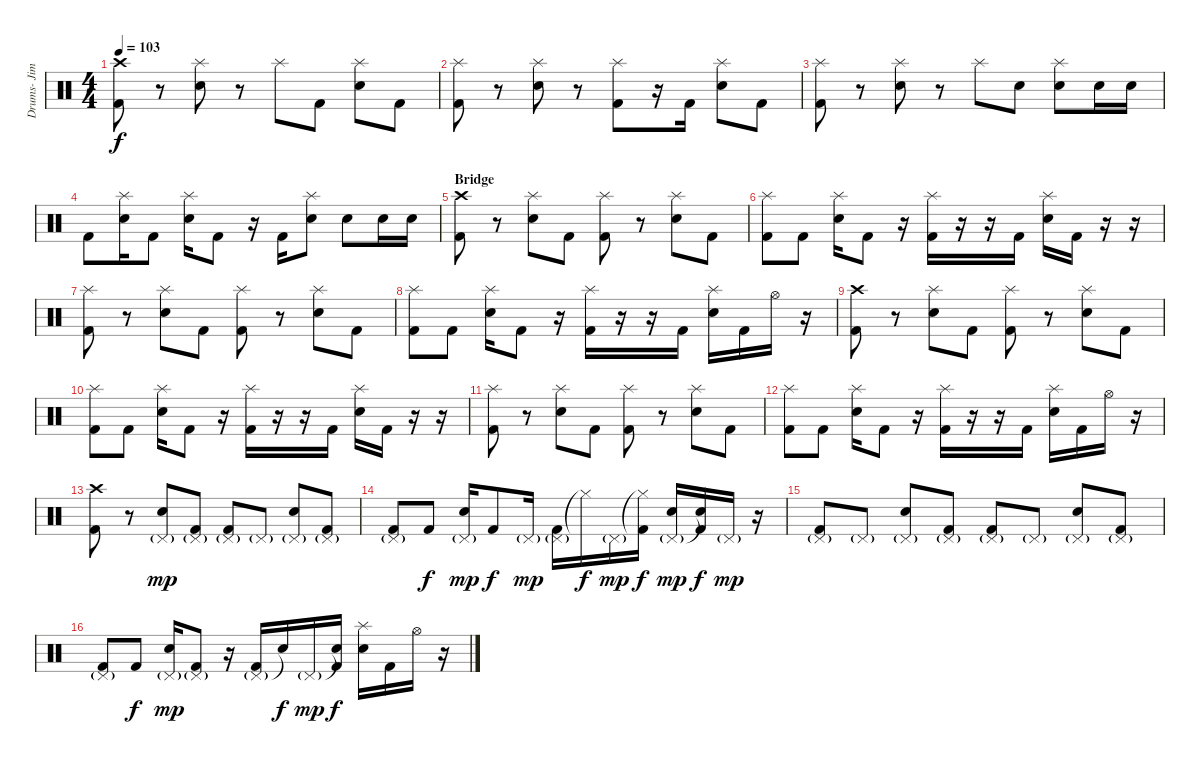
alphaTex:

\track ("Drums- Jimmy Bower" "Drums- Jim") {instrument percussion}
\staff {score}
\articulation defaults
\ts (4 4)
\tempo 103
\clef neutral
\ks c
("Crash high (hit)" "Kick (hit) 2").8{dy f} r.8 ("Splash (hit)" "Electric Snare (hit)").8 r.8 "Splash (hit)".8 "Kick (hit) 2".8 ("Splash (hit)" "Electric Snare (hit)").8 "Kick (hit) 2".8 |
("Splash (hit)" "Kick (hit) 2").8 r.8 ("Splash (hit)" "Electric Snare (hit)").8 r.8 ("Splash (hit)" "Kick (hit) 2").8 r.16 "Kick (hit) 2".16 ("Splash (hit)" "Electric Snare (hit)").8 "Kick (hit) 2".8 |
("Splash (hit)" "Kick (hit) 2").8 r.8 ("Splash (hit)" "Electric Snare (hit)").8 r.8 "Splash (hit)".8 "Electric Snare (hit)".8 ("Splash (hit)" "Electric Snare (hit)").8 "Electric Snare (hit)".16 "Electric Snare (hit)".16 |
"Kick (hit) 2".8 ("Splash (hit)" "Electric Snare (hit)").16 "Kick (hit) 2".8 ("Splash (hit)" "Electric Snare (hit)").16 "Kick (hit) 2".8 r.16 "Kick (hit) 2".16 ("Splash (hit)" "Electric Snare (hit)").8 "Electric Snare (hit)".8 "Electric Snare (hit)".16 "Electric Snare (hit)".16 |
\section ("" "Bridge")
("Crash high (hit)" "Kick (hit) 2").8 r.8 ("Splash (hit)" "Electric Snare (hit)").8 "Kick (hit) 2".8 ("Splash (hit)" "Kick (hit) 2").8 r.8 ("Splash (hit)" "Electric Snare (hit)").8 "Kick (hit) 2".8 |
("Splash (hit)" "Kick (hit) 2").8 "Kick (hit) 2".8 ("Splash (hit)" "Electric Snare (hit)").16 "Kick (hit) 2".8 r.16 ("Splash (hit)" "Kick (hit) 2").16 r.16 r.16 "Kick (hit) 2".16 ("Splash (hit)" "Electric Snare (hit)").16 "Kick (hit) 2".16 r.16 r.16 |
("Splash (hit)" "Kick (hit) 2").8 r.8 ("Splash (hit)" "Electric Snare (hit)").8 "Kick (hit) 2".8 ("Splash (hit)" "Kick (hit) 2").8 r.8 ("Splash (hit)" "Electric Snare (hit)").8 "Kick (hit) 2".8 |
("Splash (hit)" "Kick (hit) 2").8 "Kick (hit) 2".8 ("Splash (hit)" "Electric Snare (hit)").16 "Kick (hit) 2".8 r.16 ("Splash (hit)" "Kick (hit) 2").16 r.16 r.16 "Kick (hit) 2".16 ("Splash (hit)" "Electric Snare (hit)").16 "Kick (hit) 2".16 "Hi-Hat (open)".16 r.16 |
("Crash high (hit)" "Kick (hit) 2").8 r.8 ("Splash (hit)" "Electric Snare (hit)").8 "Kick (hit) 2".8 ("Splash (hit)" "Kick (hit) 2").8 r.8 ("Splash (hit)" "Electric Snare (hit)").8 "Kick (hit) 2".8 |
("Splash (hit)" "Kick (hit) 2").8 "Kick (hit) 2".8 ("Splash (hit)" "Electric Snare (hit)").16 "Kick (hit) 2".8 r.16 ("Splash (hit)" "Kick (hit) 2").16 r.16 r.16 "Kick (hit) 2".16 ("Splash (hit)" "Electric Snare (hit)").16 "Kick (hit) 2".16 r.16 r.16 |
("Splash (hit)" "Kick (hit) 2").8 r.8 ("Splash (hit)" "Electric Snare (hit)").8 "Kick (hit) 2".8 ("Splash (hit)" "Kick (hit) 2").8 r.8 ("Splash (hit)" "Electric Snare (hit)").8 "Kick (hit) 2".8 |
("Splash (hit)" "Kick (hit) 2").8 "Kick (hit) 2".8 ("Splash (hit)" "Electric Snare (hit)").16 "Kick (hit) 2".8 r.16 ("Splash (hit)" "Kick (hit) 2").16 r.16 r.16 "Kick (hit) 2".16 ("Splash (hit)" "Electric Snare (hit)").16 "Kick (hit) 2".16 "Hi-Hat (open)".16 r.16 |
("Crash high (hit)" "Kick (hit) 2").8 r.8 ("Pedal Hi-Hat (hit)"{g} "Electric Snare (hit)").8{dy mp} ("Pedal Hi-Hat (hit)"{g} "Kick (hit) 2").8 ("Pedal Hi-Hat (hit)"{g} "Kick (hit) 2").8 "Pedal Hi-Hat (hit)"{g}.8 ("Pedal Hi-Hat (hit)"{g} "Electric Snare (hit)").8 ("Pedal Hi-Hat (hit)"{g} "Kick (hit) 2").8 |
("Pedal Hi-Hat (hit)"{g} "Kick (hit) 2").8 "Kick (hit) 2".8{dy f} ("Pedal Hi-Hat (hit)"{g} "Electric Snare (hit)").16{dy mp} "Kick (hit) 2".8{dy f} "Pedal Hi-Hat (hit)"{g}.16{dy mp} ("Pedal Hi-Hat (hit)"{g} "Kick (hit) 2").16 "Hi-Hat (closed)"{t}.16{dy f} "Pedal Hi-Hat (hit)"{g}.16{dy mp} ("Hi-Hat (closed)"{t} "Kick (hit) 2").16{dy f} ("Pedal Hi-Hat (hit)"{g} "Electric Snare (hit)").16{dy mp} ("Snare (hit)"{t} "Kick (hit) 2").16{dy f} "Pedal Hi-Hat (hit)"{g}.16{dy mp} r.16 |
("Pedal Hi-Hat (hit)"{g} "Kick (hit) 2").8 "Pedal Hi-Hat (hit)"{g}.8 ("Pedal Hi-Hat (hit)"{g} "Electric Snare (hit)").8 ("Pedal Hi-Hat (hit)"{g} "Kick (hit) 2").8 ("Pedal Hi-Hat (hit)"{g} "Kick (hit) 2").8 "Pedal Hi-Hat (hit)"{g}.8 ("Pedal Hi-Hat (hit)"{g} "Electric Snare (hit)").8 ("Pedal Hi-Hat (hit)"{g} "Kick (hit) 2").8 |
("Pedal Hi-Hat (hit)"{g} "Kick (hit) 2").8 "Kick (hit) 2".8{dy f} ("Pedal Hi-Hat (hit)"{g} "Electric Snare (hit)").16{dy mp} ("Pedal Hi-Hat (hit)"{g} "Kick (hit) 2").8 r.16 ("Pedal Hi-Hat (hit)"{g} "Kick (hit) 2").16 "Snare (hit)"{t}.16{dy f} "Pedal Hi-Hat (hit)"{g}.16{dy mp} ("Snare (hit)"{t} "Kick (hit) 2").16{dy f} ("Splash (hit)" "Electric Snare (hit)").16 "Kick (hit) 2".16 "Hi-Hat (open)".16 r.16
